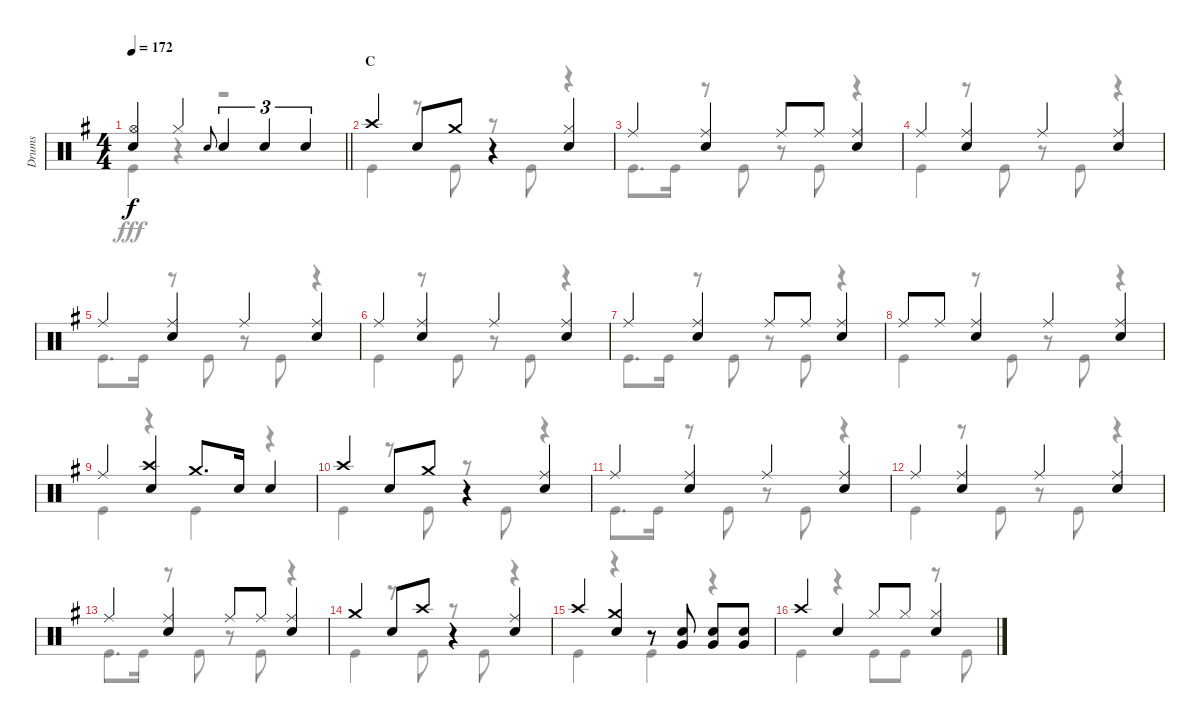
\track ("Drums" "Drums") {instrument percussion}
\staff {score}
\articulation defaults
\voice
\ts (4 4)
\tempo 172
\clef neutral
\barLineRight lightlight
\ks g
("Hi-Hat (open)" "Snare (hit) 2").4{dy f} "Hi-Hat (closed)".4 "Snare (hit) 2".8{gr onbeat} "Snare (hit) 2".4{tu (3 2)} "Snare (hit) 2".4{tu (3 2)} "Snare (hit) 2".4{tu (3 2)} |
\section ("" "C")
"Crash high (hit)".4 "Snare (hit) 2".8 "Crash medium (hit)".8 r.4 ("Hi-Hat (closed)" "Snare (hit) 2").4 |
"Ride (middle)".4 ("Ride (middle)" "Snare (hit) 2").4 "Ride (middle)".8 "Ride (middle)".8 ("Ride (middle)" "Snare (hit) 2").4 |
"Ride (middle)".4 ("Ride (middle)" "Snare (hit) 2").4 "Ride (middle)".4 ("Ride (middle)" "Snare (hit) 2").4 |
"Ride (middle)".4 ("Ride (middle)" "Snare (hit) 2").4 "Ride (middle)".4 ("Ride (middle)" "Snare (hit) 2").4 |
"Ride (middle)".4 ("Ride (middle)" "Snare (hit) 2").4 "Ride (middle)".4 ("Ride (middle)" "Snare (hit) 2").4 |
"Ride (middle)".4 ("Ride (middle)" "Snare (hit) 2").4 "Ride (middle)".8 "Ride (middle)".8 ("Ride (middle)" "Snare (hit) 2").4 |
"Ride (middle)".8 "Ride (middle)".8 ("Ride (middle)" "Snare (hit) 2").4 "Ride (middle)".4 ("Ride (middle)" "Snare (hit) 2").4 |
"Ride (middle)".4 ("Crash high (hit)" "Snare (hit) 2").4 "Crash medium (hit)".8{d} "Snare (hit) 2".16 "Snare (hit) 2".4 |
"Crash high (hit)".4 "Snare (hit) 2".8 "Crash medium (hit)".8 r.4 ("Ride (middle)" "Snare (hit) 2").4 |
"Ride (middle)".4 ("Ride (middle)" "Snare (hit) 2").4 "Ride (middle)".4 ("Ride (middle)" "Snare (hit) 2").4 |
"Ride (middle)".4 ("Ride (middle)" "Snare (hit) 2").4 "Ride (middle)".4 ("Ride (middle)" "Snare (hit) 2").4 |
"Ride (middle)".4 ("Ride (middle)" "Snare (hit) 2").4 "Ride (middle)".8 "Ride (middle)".8 ("Ride (middle)" "Snare (hit) 2").4 |
"Crash medium (hit)".4 "Snare (hit) 2".8 "Crash high (hit)".8 r.4 ("Ride (middle)" "Snare (hit) 2").4 |
"Crash high (hit)".4 ("Crash medium (hit)" "Snare (hit) 2").4 r.8 ("Snare (hit) 2" "Very Low Tom (hit)").8 ("Snare (hit) 2" "Very Low Tom (hit)").8 ("Snare (hit) 2" "Very Low Tom (hit)").8 |
"Crash high (hit)".4 "Snare (hit) 2".4 "Hi-Hat (closed)".8 "Hi-Hat (closed)".8 ("Hi-Hat (closed)" "Snare (hit) 2").4
\voice
\clef neutral
\ottava regular
\simile none
\barLineRight lightlight
\ks g "Kick (hit)".4{dy fff}
r.4 r.2 |
"Kick (hit)".4 r.8 "Kick (hit)".8 r.8 "Kick (hit)".8 r.4 |
"Kick (hit)".8{d} "Kick (hit)".16 r.8 "Kick (hit)".8 r.8 "Kick (hit)".8 r.4 |
"Kick (hit)".4 r.8 "Kick (hit)".8 r.8 "Kick (hit)".8 r.4 |
"Kick (hit)".8{d} "Kick (hit)".16 r.8 "Kick (hit)".8 r.8 "Kick (hit)".8 r.4 |
"Kick (hit)".4 r.8 "Kick (hit)".8 r.8 "Kick (hit)".8 r.4 |
"Kick (hit)".8{d} "Kick (hit)".16 r.8 "Kick (hit)".8 r.8 "Kick (hit)".8 r.4 |
"Kick (hit)".4 r.8 "Kick (hit)".8 r.8 "Kick (hit)".8 r.4 |
"Kick (hit)".4 r.4 "Kick (hit)".4 r.4 |
"Kick (hit)".4 r.8 "Kick (hit)".8 r.8 "Kick (hit)".8 r.4 |
"Kick (hit)".8{d} "Kick (hit)".16 r.8 "Kick (hit)".8 r.8 "Kick (hit)".8 r.4 |
"Kick (hit)".4 r.8 "Kick (hit)".8 r.8 "Kick (hit)".8 r.4 |
"Kick (hit)".8{d} "Kick (hit)".16 r.8 "Kick (hit)".8 r.8 "Kick (hit)".8 r.4 |
"Kick (hit)".4 r.8 "Kick (hit)".8 r.8 "Kick (hit)".8 r.4 |
"Kick (hit)".4 r.4 "Kick (hit)".4 r.4 |
"Kick (hit)".4 r.4 "Kick (hit)".8 "Kick (hit)".8 r.8 "Kick (hit)".8
